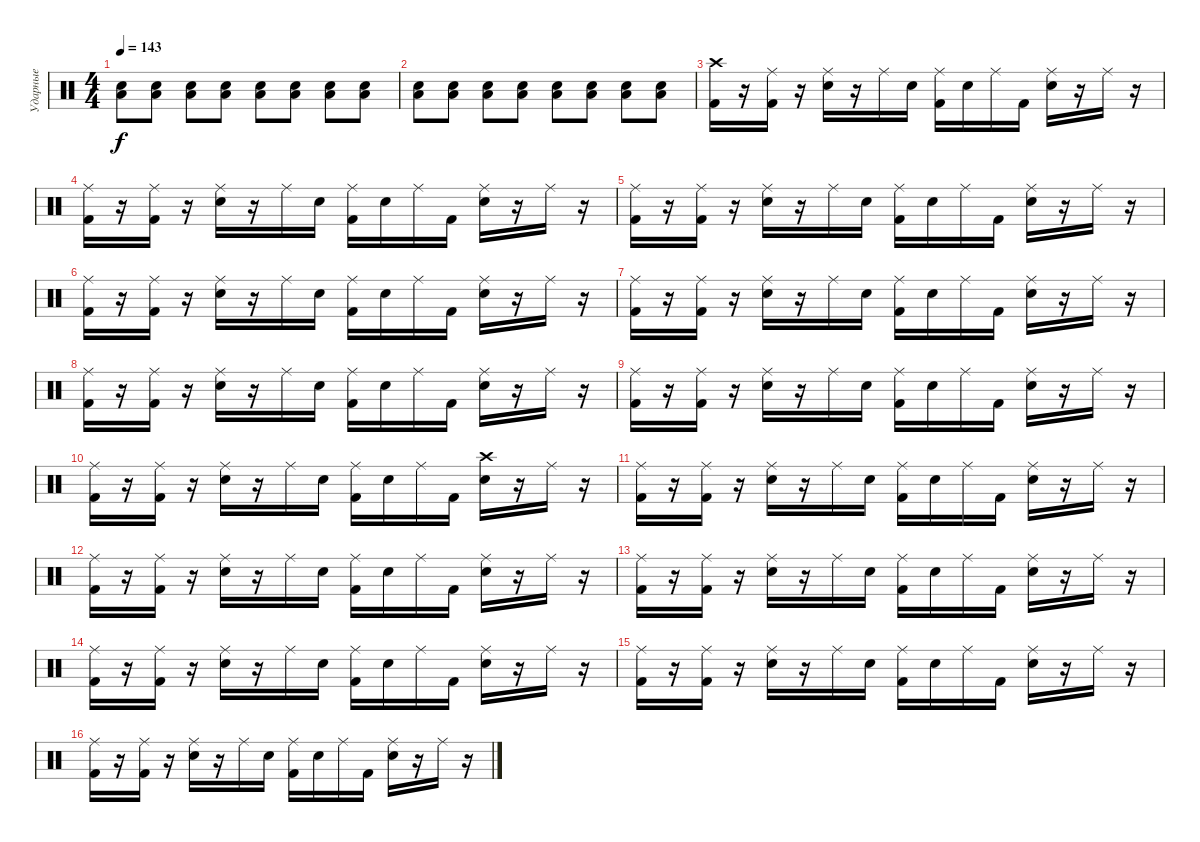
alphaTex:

\track ("Ударные" "Ударные") {instrument percussion}
\staff {score}
\articulation defaults
\ts (4 4)
\tempo 143
\clef neutral
\ks c
("Low Tom (hit)" "Electric Snare (hit)").8{dy f} ("Low Tom (hit)" "Electric Snare (hit)").8 ("Low Tom (hit)" "Electric Snare (hit)").8 ("Low Tom (hit)" "Electric Snare (hit)").8 ("Low Tom (hit)" "Electric Snare (hit)").8 ("Low Tom (hit)" "Electric Snare (hit)").8 ("Low Tom (hit)" "Electric Snare (hit)").8 ("Low Tom (hit)" "Electric Snare (hit)").8 |
("Low Tom (hit)" "Electric Snare (hit)").8 ("Low Tom (hit)" "Electric Snare (hit)").8 ("Low Tom (hit)" "Electric Snare (hit)").8 ("Low Tom (hit)" "Electric Snare (hit)").8 ("Low Tom (hit)" "Electric Snare (hit)").8 ("Low Tom (hit)" "Electric Snare (hit)").8 ("Low Tom (hit)" "Electric Snare (hit)").8 ("Low Tom (hit)" "Electric Snare (hit)").8 |
("Kick (hit) 2" "Crash high (hit)").16 r.16 ("Kick (hit) 2" "Ride (middle)").16 r.16 ("Electric Snare (hit)" "Ride (middle)").16 r.16 "Ride (middle)".16 "Electric Snare (hit)".16 ("Kick (hit) 2" "Ride (middle)").16 "Electric Snare (hit)".16 "Ride (middle)".16 "Kick (hit) 2".16 ("Electric Snare (hit)" "Ride (middle)").16 r.16 "Ride (middle)".16 r.16 |
("Kick (hit) 2" "Ride (middle)").16 r.16 ("Kick (hit) 2" "Ride (middle)").16 r.16 ("Electric Snare (hit)" "Ride (middle)").16 r.16 "Ride (middle)".16 "Electric Snare (hit)".16 ("Kick (hit) 2" "Ride (middle)").16 "Electric Snare (hit)".16 "Ride (middle)".16 "Kick (hit) 2".16 ("Electric Snare (hit)" "Ride (middle)").16 r.16 "Ride (middle)".16 r.16 |
("Kick (hit) 2" "Ride (middle)").16 r.16 ("Kick (hit) 2" "Ride (middle)").16 r.16 ("Electric Snare (hit)" "Ride (middle)").16 r.16 "Ride (middle)".16 "Electric Snare (hit)".16 ("Kick (hit) 2" "Ride (middle)").16 "Electric Snare (hit)".16 "Ride (middle)".16 "Kick (hit) 2".16 ("Electric Snare (hit)" "Ride (middle)").16 r.16 "Ride (middle)".16 r.16 |
("Kick (hit) 2" "Ride (middle)").16 r.16 ("Kick (hit) 2" "Ride (middle)").16 r.16 ("Electric Snare (hit)" "Ride (middle)").16 r.16 "Ride (middle)".16 "Electric Snare (hit)".16 ("Kick (hit) 2" "Ride (middle)").16 "Electric Snare (hit)".16 "Ride (middle)".16 "Kick (hit) 2".16 ("Electric Snare (hit)" "Ride (middle)").16 r.16 "Ride (middle)".16 r.16 |
("Kick (hit) 2" "Ride (middle)").16 r.16 ("Kick (hit) 2" "Ride (middle)").16 r.16 ("Electric Snare (hit)" "Ride (middle)").16 r.16 "Ride (middle)".16 "Electric Snare (hit)".16 ("Kick (hit) 2" "Ride (middle)").16 "Electric Snare (hit)".16 "Ride (middle)".16 "Kick (hit) 2".16 ("Electric Snare (hit)" "Ride (middle)").16 r.16 "Ride (middle)".16 r.16 |
("Kick (hit) 2" "Ride (middle)").16 r.16 ("Kick (hit) 2" "Ride (middle)").16 r.16 ("Electric Snare (hit)" "Ride (middle)").16 r.16 "Ride (middle)".16 "Electric Snare (hit)".16 ("Kick (hit) 2" "Ride (middle)").16 "Electric Snare (hit)".16 "Ride (middle)".16 "Kick (hit) 2".16 ("Electric Snare (hit)" "Ride (middle)").16 r.16 "Ride (middle)".16 r.16 |
("Kick (hit) 2" "Ride (middle)").16 r.16 ("Kick (hit) 2" "Ride (middle)").16 r.16 ("Electric Snare (hit)" "Ride (middle)").16 r.16 "Ride (middle)".16 "Electric Snare (hit)".16 ("Kick (hit) 2" "Ride (middle)").16 "Electric Snare (hit)".16 "Ride (middle)".16 "Kick (hit) 2".16 ("Electric Snare (hit)" "Ride (middle)").16 r.16 "Ride (middle)".16 r.16 |
("Kick (hit) 2" "Ride (middle)").16 r.16 ("Kick (hit) 2" "Ride (middle)").16 r.16 ("Electric Snare (hit)" "Ride (middle)").16 r.16 "Ride (middle)".16 "Electric Snare (hit)".16 ("Kick (hit) 2" "Ride (middle)").16 "Electric Snare (hit)".16 "Ride (middle)".16 "Kick (hit) 2".16 ("Electric Snare (hit)" "Crash high (hit)").16 r.16 "Ride (middle)".16 r.16 |
("Kick (hit) 2" "Ride (middle)").16 r.16 ("Kick (hit) 2" "Ride (middle)").16 r.16 ("Electric Snare (hit)" "Ride (middle)").16 r.16 "Ride (middle)".16 "Electric Snare (hit)".16 ("Kick (hit) 2" "Ride (middle)").16 "Electric Snare (hit)".16 "Ride (middle)".16 "Kick (hit) 2".16 ("Electric Snare (hit)" "Ride (middle)").16 r.16 "Ride (middle)".16 r.16 |
("Kick (hit) 2" "Ride (middle)").16 r.16 ("Kick (hit) 2" "Ride (middle)").16 r.16 ("Electric Snare (hit)" "Ride (middle)").16 r.16 "Ride (middle)".16 "Electric Snare (hit)".16 ("Kick (hit) 2" "Ride (middle)").16 "Electric Snare (hit)".16 "Ride (middle)".16 "Kick (hit) 2".16 ("Electric Snare (hit)" "Ride (middle)").16 r.16 "Ride (middle)".16 r.16 |
("Kick (hit) 2" "Ride (middle)").16 r.16 ("Kick (hit) 2" "Ride (middle)").16 r.16 ("Electric Snare (hit)" "Ride (middle)").16 r.16 "Ride (middle)".16 "Electric Snare (hit)".16 ("Kick (hit) 2" "Ride (middle)").16 "Electric Snare (hit)".16 "Ride (middle)".16 "Kick (hit) 2".16 ("Electric Snare (hit)" "Ride (middle)").16 r.16 "Ride (middle)".16 r.16 |
("Kick (hit) 2" "Ride (middle)").16 r.16 ("Kick (hit) 2" "Ride (middle)").16 r.16 ("Electric Snare (hit)" "Ride (middle)").16 r.16 "Ride (middle)".16 "Electric Snare (hit)".16 ("Kick (hit) 2" "Ride (middle)").16 "Electric Snare (hit)".16 "Ride (middle)".16 "Kick (hit) 2".16 ("Electric Snare (hit)" "Ride (middle)").16 r.16 "Ride (middle)".16 r.16 |
("Kick (hit) 2" "Ride (middle)").16 r.16 ("Kick (hit) 2" "Ride (middle)").16 r.16 ("Electric Snare (hit)" "Ride (middle)").16 r.16 "Ride (middle)".16 "Electric Snare (hit)".16 ("Kick (hit) 2" "Ride (middle)").16 "Electric Snare (hit)".16 "Ride (middle)".16 "Kick (hit) 2".16 ("Electric Snare (hit)" "Ride (middle)").16 r.16 "Ride (middle)".16 r.16 |
("Kick (hit) 2" "Ride (middle)").16 r.16 ("Kick (hit) 2" "Ride (middle)").16 r.16 ("Electric Snare (hit)" "Ride (middle)").16 r.16 "Ride (middle)".16 "Electric Snare (hit)".16 ("Kick (hit) 2" "Ride (middle)").16 "Electric Snare (hit)".16 "Ride (middle)".16 "Kick (hit) 2".16 ("Electric Snare (hit)" "Ride (middle)").16 r.16 "Ride (middle)".16 r.16
